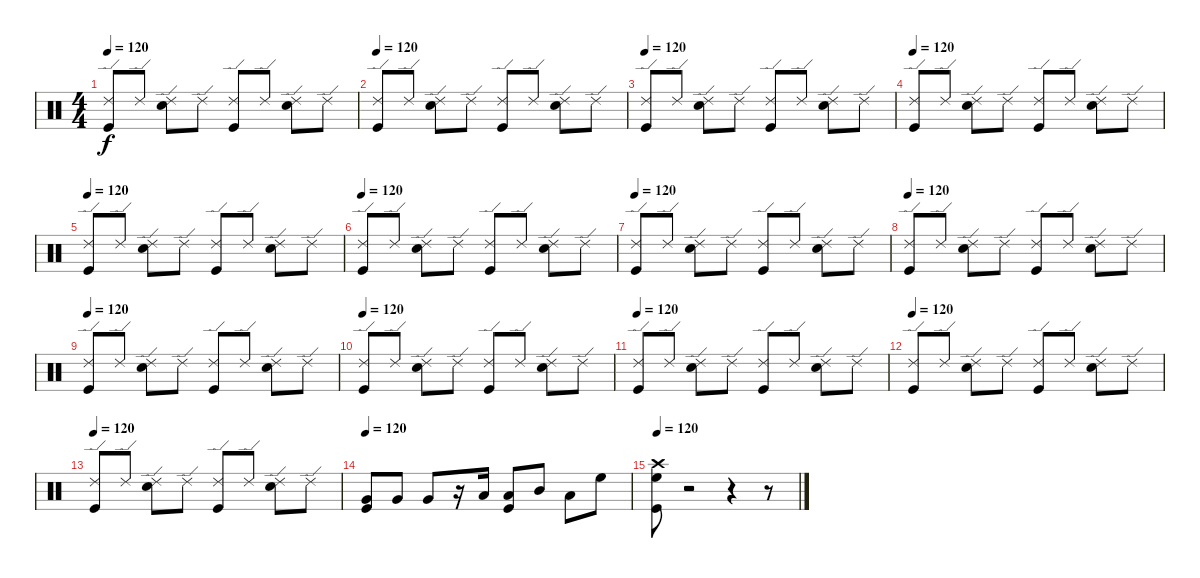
\track "" {instrument percussion}
\staff {score}
\articulation defaults
\ts (4 4)
\tempo 120
\clef neutral
\ks c
("Kick (hit)" "Ride (edge) 2").8{dy f} "Ride (edge) 2".8 ("Ride (edge) 2" "Electric Snare (hit)").8 "Ride (edge) 2".8 ("Kick (hit)" "Ride (edge) 2").8 "Ride (edge) 2".8 ("Electric Snare (hit)" "Ride (edge) 2").8 "Ride (edge) 2".8 |
\tempo 120
("Kick (hit)" "Ride (edge) 2").8 "Ride (edge) 2".8 ("Ride (edge) 2" "Electric Snare (hit)").8 "Ride (edge) 2".8 ("Kick (hit)" "Ride (edge) 2").8 "Ride (edge) 2".8 ("Electric Snare (hit)" "Ride (edge) 2").8 "Ride (edge) 2".8 |
\tempo 120
("Kick (hit)" "Ride (edge) 2").8 "Ride (edge) 2".8 ("Ride (edge) 2" "Electric Snare (hit)").8 "Ride (edge) 2".8 ("Kick (hit)" "Ride (edge) 2").8 "Ride (edge) 2".8 ("Electric Snare (hit)" "Ride (edge) 2").8 "Ride (edge) 2".8 |
\tempo 120
("Kick (hit)" "Ride (edge) 2").8 "Ride (edge) 2".8 ("Ride (edge) 2" "Electric Snare (hit)").8 "Ride (edge) 2".8 ("Kick (hit)" "Ride (edge) 2").8 "Ride (edge) 2".8 ("Electric Snare (hit)" "Ride (edge) 2").8 "Ride (edge) 2".8 |
\tempo 120
("Kick (hit)" "Ride (edge) 2").8 "Ride (edge) 2".8 ("Ride (edge) 2" "Electric Snare (hit)").8 "Ride (edge) 2".8 ("Kick (hit)" "Ride (edge) 2").8 "Ride (edge) 2".8 ("Electric Snare (hit)" "Ride (edge) 2").8 "Ride (edge) 2".8 |
\tempo 120
("Kick (hit)" "Ride (edge) 2").8 "Ride (edge) 2".8 ("Ride (edge) 2" "Electric Snare (hit)").8 "Ride (edge) 2".8 ("Kick (hit)" "Ride (edge) 2").8 "Ride (edge) 2".8 ("Electric Snare (hit)" "Ride (edge) 2").8 "Ride (edge) 2".8 |
\tempo 120
("Kick (hit)" "Ride (edge) 2").8 "Ride (edge) 2".8 ("Ride (edge) 2" "Electric Snare (hit)").8 "Ride (edge) 2".8 ("Kick (hit)" "Ride (edge) 2").8 "Ride (edge) 2".8 ("Electric Snare (hit)" "Ride (edge) 2").8 "Ride (edge) 2".8 |
\tempo 120
("Kick (hit)" "Ride (edge) 2").8 "Ride (edge) 2".8 ("Ride (edge) 2" "Electric Snare (hit)").8 "Ride (edge) 2".8 ("Kick (hit)" "Ride (edge) 2").8 "Ride (edge) 2".8 ("Electric Snare (hit)" "Ride (edge) 2").8 "Ride (edge) 2".8 |
\tempo 120
("Kick (hit)" "Ride (edge) 2").8 "Ride (edge) 2".8 ("Ride (edge) 2" "Electric Snare (hit)").8 "Ride (edge) 2".8 ("Kick (hit)" "Ride (edge) 2").8 "Ride (edge) 2".8 ("Electric Snare (hit)" "Ride (edge) 2").8 "Ride (edge) 2".8 |
\tempo 120
("Kick (hit)" "Ride (edge) 2").8 "Ride (edge) 2".8 ("Ride (edge) 2" "Electric Snare (hit)").8 "Ride (edge) 2".8 ("Kick (hit)" "Ride (edge) 2").8 "Ride (edge) 2".8 ("Electric Snare (hit)" "Ride (edge) 2").8 "Ride (edge) 2".8 |
\tempo 120
("Kick (hit)" "Ride (edge) 2").8 "Ride (edge) 2".8 ("Ride (edge) 2" "Electric Snare (hit)").8 "Ride (edge) 2".8 ("Kick (hit)" "Ride (edge) 2").8 "Ride (edge) 2".8 ("Electric Snare (hit)" "Ride (edge) 2").8 "Ride (edge) 2".8 |
\tempo 120
("Kick (hit)" "Ride (edge) 2").8 "Ride (edge) 2".8 ("Ride (edge) 2" "Electric Snare (hit)").8 "Ride (edge) 2".8 ("Kick (hit)" "Ride (edge) 2").8 "Ride (edge) 2".8 ("Electric Snare (hit)" "Ride (edge) 2").8 "Ride (edge) 2".8 |
\tempo 120
("Kick (hit)" "Ride (edge) 2").8 "Ride (edge) 2".8 ("Ride (edge) 2" "Electric Snare (hit)").8 "Ride (edge) 2".8 ("Kick (hit)" "Ride (edge) 2").8 "Ride (edge) 2".8 ("Electric Snare (hit)" "Ride (edge) 2").8 "Ride (edge) 2".8 |
\tempo 120
("Kick (hit)" "Very Low Tom (hit)").8 "Very Low Tom (hit)".8 "Very Low Tom (hit)".8 r.16 "Low Tom (hit)".16 ("Kick (hit)" "Low Tom (hit)").8 "Mid Tom (hit)".8 "Low Tom (hit)".8 "High Floor Tom (hit)".8 |
\tempo 120
("Kick (hit)" "High Floor Tom (hit)" "Crash high (hit)").8 r.2 r.4 r.8
